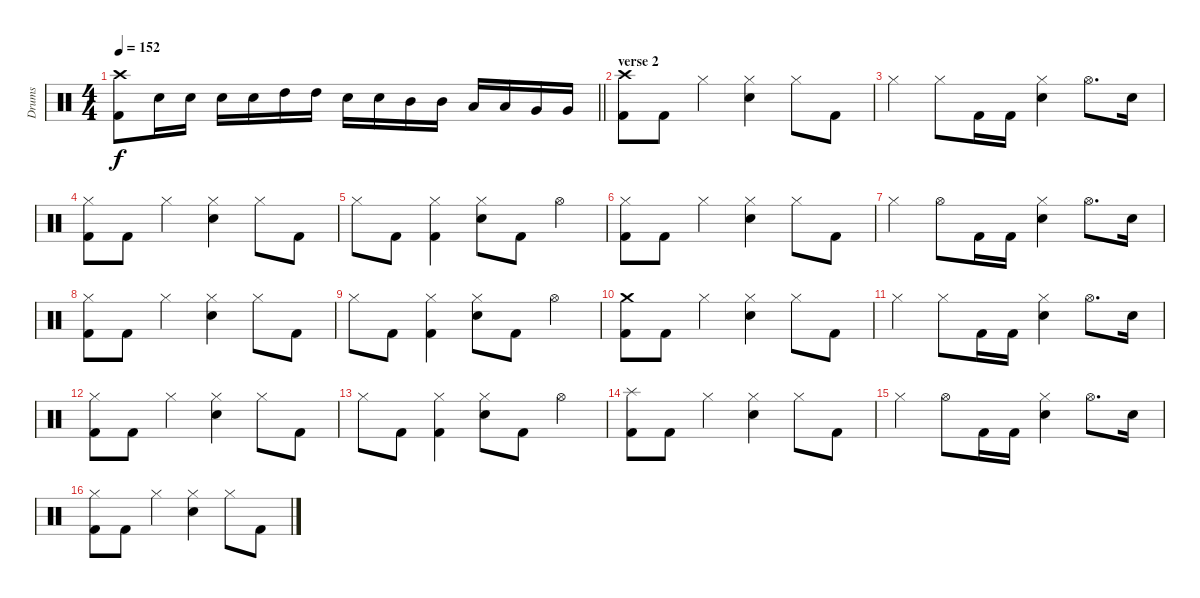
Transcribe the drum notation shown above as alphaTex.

\track ("Drums" "Drums") {instrument percussion}
\staff {score}
\articulation defaults
\ts (4 4)
\tempo 152
\clef neutral
\barLineRight lightlight
\ks c
("Crash high (hit)" "Kick (hit) 2").8{dy f} "Electric Snare (hit)".16 "Electric Snare (hit)".16 "Electric Snare (hit)".16 "Electric Snare (hit)".16 "High Tom (hit)".16 "High Tom (hit)".16 "Electric Snare (hit)".16 "Electric Snare (hit)".16 "Mid Tom (hit)".16 "Mid Tom (hit)".16 "Low Tom (hit)".16 "Low Tom (hit)".16 "Very Low Tom (hit)".16 "Very Low Tom (hit)".16 |
\section ("" "verse 2")
("Crash high (hit)" "Kick (hit) 2").8 "Kick (hit) 2".8 "Hi-Hat (closed)".4 ("Hi-Hat (closed)" "Electric Snare (hit)").4 "Hi-Hat (closed)".8 "Kick (hit) 2".8 |
"Hi-Hat (closed)".4 "Hi-Hat (closed)".8 "Kick (hit) 2".16 "Kick (hit) 2".16 ("Hi-Hat (closed)" "Electric Snare (hit)").4 "Hi-Hat (open)".8{d} "Electric Snare (hit)".16 |
("Hi-Hat (closed)" "Kick (hit) 2").8 "Kick (hit) 2".8 "Hi-Hat (closed)".4 ("Hi-Hat (closed)" "Electric Snare (hit)").4 "Hi-Hat (closed)".8 "Kick (hit) 2".8 |
"Hi-Hat (closed)".8 "Kick (hit) 2".8 ("Hi-Hat (closed)" "Kick (hit) 2").4 ("Hi-Hat (closed)" "Electric Snare (hit)").8 "Kick (hit) 2".8 "Hi-Hat (open)".4 |
("Hi-Hat (closed)" "Kick (hit) 2").8 "Kick (hit) 2".8 "Hi-Hat (closed)".4 ("Hi-Hat (closed)" "Electric Snare (hit)").4 "Hi-Hat (closed)".8 "Kick (hit) 2".8 |
"Hi-Hat (closed)".4 "Hi-Hat (open)".8 "Kick (hit) 2".16 "Kick (hit) 2".16 ("Hi-Hat (closed)" "Electric Snare (hit)").4 "Hi-Hat (open)".8{d} "Electric Snare (hit)".16 |
("Hi-Hat (closed)" "Kick (hit) 2").8 "Kick (hit) 2".8 "Hi-Hat (closed)".4 ("Hi-Hat (closed)" "Electric Snare (hit)").4 "Hi-Hat (closed)".8 "Kick (hit) 2".8 |
"Hi-Hat (closed)".8 "Kick (hit) 2".8 ("Hi-Hat (closed)" "Kick (hit) 2").4 ("Hi-Hat (closed)" "Electric Snare (hit)").8 "Kick (hit) 2".8 "Hi-Hat (open)".4 |
("Crash medium (hit)" "Kick (hit) 2").8 "Kick (hit) 2".8 "Hi-Hat (closed)".4 ("Hi-Hat (closed)" "Electric Snare (hit)").4 "Hi-Hat (closed)".8 "Kick (hit) 2".8 |
"Hi-Hat (closed)".4 "Hi-Hat (closed)".8 "Kick (hit) 2".16 "Kick (hit) 2".16 ("Hi-Hat (closed)" "Electric Snare (hit)").4 "Hi-Hat (open)".8{d} "Electric Snare (hit)".16 |
("Hi-Hat (closed)" "Kick (hit) 2").8 "Kick (hit) 2".8 "Hi-Hat (closed)".4 ("Hi-Hat (closed)" "Electric Snare (hit)").4 "Hi-Hat (closed)".8 "Kick (hit) 2".8 |
"Hi-Hat (closed)".8 "Kick (hit) 2".8 ("Hi-Hat (closed)" "Kick (hit) 2").4 ("Hi-Hat (closed)" "Electric Snare (hit)").8 "Kick (hit) 2".8 "Hi-Hat (open)".4 |
("Splash (hit)" "Kick (hit) 2").8 "Kick (hit) 2".8 "Hi-Hat (closed)".4 ("Hi-Hat (closed)" "Electric Snare (hit)").4 "Hi-Hat (closed)".8 "Kick (hit) 2".8 |
"Hi-Hat (closed)".4 "Hi-Hat (open)".8 "Kick (hit) 2".16 "Kick (hit) 2".16 ("Hi-Hat (closed)" "Electric Snare (hit)").4 "Hi-Hat (open)".8{d} "Electric Snare (hit)".16 |
("Hi-Hat (closed)" "Kick (hit) 2").8 "Kick (hit) 2".8 "Hi-Hat (closed)".4 ("Hi-Hat (closed)" "Electric Snare (hit)").4 "Hi-Hat (closed)".8 "Kick (hit) 2".8
